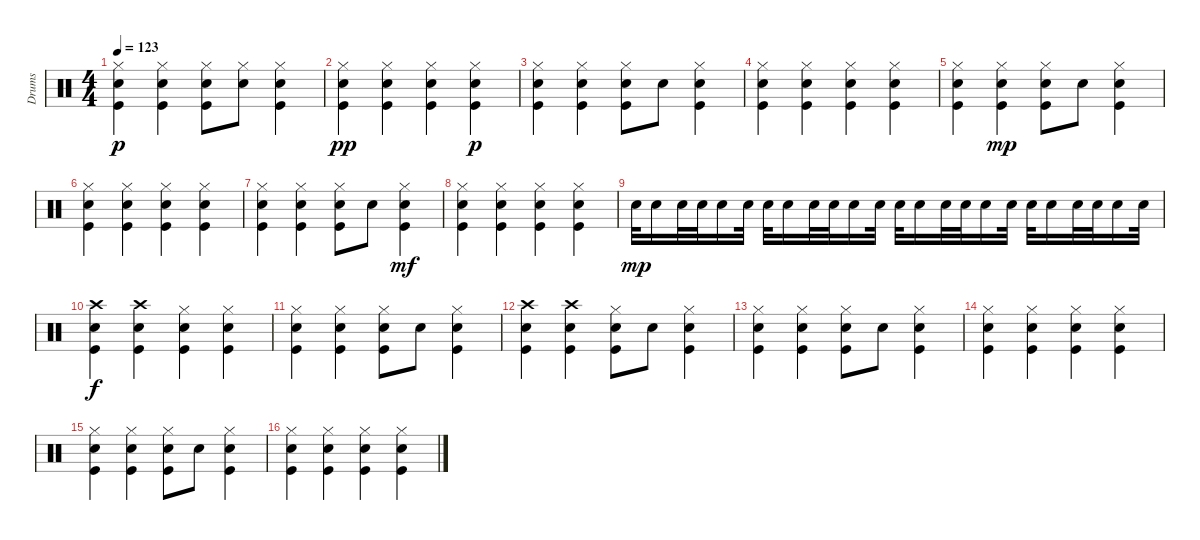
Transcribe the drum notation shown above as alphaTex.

\track ("Drums" "Drums") {instrument percussion}
\staff {score}
\articulation defaults
\ts (4 4)
\tempo 123
\clef neutral
\ks c
("Electric Snare (hit)" "Kick (hit)" "Hi-Hat (closed)").4{dy p} ("Kick (hit)" "Electric Snare (hit)" "Hi-Hat (closed)").4 ("Kick (hit)" "Electric Snare (hit)" "Hi-Hat (closed)").8 ("Hi-Hat (closed)" "Electric Snare (hit)").8 ("Kick (hit)" "Electric Snare (hit)" "Hi-Hat (closed)").4 |
("Hi-Hat (closed)" "Kick (hit)" "Electric Snare (hit)").4{dy pp} ("Hi-Hat (closed)" "Kick (hit)" "Electric Snare (hit)").4 ("Hi-Hat (closed)" "Kick (hit)" "Electric Snare (hit)").4 ("Hi-Hat (closed)" "Kick (hit)" "Electric Snare (hit)").4{dy p} |
("Electric Snare (hit)" "Kick (hit)" "Hi-Hat (closed)").4 ("Kick (hit)" "Electric Snare (hit)" "Hi-Hat (closed)").4 ("Kick (hit)" "Electric Snare (hit)" "Hi-Hat (closed)").8 "Electric Snare (hit)".8 ("Kick (hit)" "Electric Snare (hit)" "Hi-Hat (closed)").4 |
("Hi-Hat (closed)" "Kick (hit)" "Electric Snare (hit)").4 ("Hi-Hat (closed)" "Kick (hit)" "Electric Snare (hit)").4 ("Hi-Hat (closed)" "Kick (hit)" "Electric Snare (hit)").4 ("Hi-Hat (closed)" "Kick (hit)" "Electric Snare (hit)").4 |
("Electric Snare (hit)" "Kick (hit)" "Hi-Hat (closed)").4 ("Kick (hit)" "Electric Snare (hit)" "Hi-Hat (closed)").4{dy mp} ("Kick (hit)" "Electric Snare (hit)" "Hi-Hat (closed)").8 "Electric Snare (hit)".8 ("Kick (hit)" "Electric Snare (hit)" "Hi-Hat (closed)").4 |
("Hi-Hat (closed)" "Kick (hit)" "Electric Snare (hit)").4 ("Hi-Hat (closed)" "Kick (hit)" "Electric Snare (hit)").4 ("Hi-Hat (closed)" "Kick (hit)" "Electric Snare (hit)").4 ("Hi-Hat (closed)" "Kick (hit)" "Electric Snare (hit)").4 |
("Electric Snare (hit)" "Kick (hit)" "Hi-Hat (closed)").4 ("Kick (hit)" "Electric Snare (hit)" "Hi-Hat (closed)").4 ("Kick (hit)" "Electric Snare (hit)" "Hi-Hat (closed)").8 "Electric Snare (hit)".8 ("Kick (hit)" "Electric Snare (hit)" "Hi-Hat (closed)").4{dy mf} |
("Hi-Hat (closed)" "Kick (hit)" "Electric Snare (hit)").4 ("Hi-Hat (closed)" "Kick (hit)" "Electric Snare (hit)").4 ("Hi-Hat (closed)" "Kick (hit)" "Electric Snare (hit)").4 ("Electric Snare (hit)" "Hi-Hat (closed)" "Kick (hit)").4 |
"Electric Snare (hit)".32{dy mp} "Electric Snare (hit)".16 "Electric Snare (hit)".32 "Electric Snare (hit)".32 "Electric Snare (hit)".16 "Electric Snare (hit)".32 "Electric Snare (hit)".32 "Electric Snare (hit)".16 "Electric Snare (hit)".32 "Electric Snare (hit)".32 "Electric Snare (hit)".16 "Electric Snare (hit)".32 "Electric Snare (hit)".32 "Electric Snare (hit)".16 "Electric Snare (hit)".32 "Electric Snare (hit)".32 "Electric Snare (hit)".16 "Electric Snare (hit)".32 "Electric Snare (hit)".32 "Electric Snare (hit)".16 "Electric Snare (hit)".32 "Electric Snare (hit)".32 "Electric Snare (hit)".16 "Electric Snare (hit)".32 |
("Crash high (hit)" "Kick (hit)" "Electric Snare (hit)").4{dy f} ("Crash high (hit)" "Kick (hit)" "Electric Snare (hit)").4 ("Kick (hit)" "Electric Snare (hit)" "Hi-Hat (closed)").4 ("Kick (hit)" "Electric Snare (hit)" "Hi-Hat (closed)").4 |
("Electric Snare (hit)" "Kick (hit)" "Hi-Hat (closed)").4 ("Kick (hit)" "Electric Snare (hit)" "Hi-Hat (closed)").4 ("Kick (hit)" "Electric Snare (hit)" "Hi-Hat (closed)").8 "Electric Snare (hit)".8 ("Kick (hit)" "Electric Snare (hit)" "Hi-Hat (closed)").4 |
("Crash high (hit)" "Electric Snare (hit)" "Kick (hit)").4 ("Crash high (hit)" "Kick (hit)" "Electric Snare (hit)").4 ("Kick (hit)" "Electric Snare (hit)" "Hi-Hat (closed)").8 "Electric Snare (hit)".8 ("Kick (hit)" "Electric Snare (hit)" "Hi-Hat (closed)").4 |
("Electric Snare (hit)" "Kick (hit)" "Hi-Hat (closed)").4 ("Kick (hit)" "Electric Snare (hit)" "Hi-Hat (closed)").4 ("Kick (hit)" "Electric Snare (hit)" "Hi-Hat (closed)").8 "Electric Snare (hit)".8 ("Kick (hit)" "Electric Snare (hit)" "Hi-Hat (closed)").4 |
("Kick (hit)" "Electric Snare (hit)" "Hi-Hat (closed)").4 ("Kick (hit)" "Electric Snare (hit)" "Hi-Hat (closed)").4 ("Kick (hit)" "Electric Snare (hit)" "Hi-Hat (closed)").4 ("Kick (hit)" "Electric Snare (hit)" "Hi-Hat (closed)").4 |
("Electric Snare (hit)" "Kick (hit)" "Hi-Hat (closed)").4 ("Kick (hit)" "Electric Snare (hit)" "Hi-Hat (closed)").4 ("Kick (hit)" "Electric Snare (hit)" "Hi-Hat (closed)").8 "Electric Snare (hit)".8 ("Kick (hit)" "Electric Snare (hit)" "Hi-Hat (closed)").4 |
("Kick (hit)" "Electric Snare (hit)" "Hi-Hat (closed)").4 ("Kick (hit)" "Electric Snare (hit)" "Hi-Hat (closed)").4 ("Kick (hit)" "Electric Snare (hit)" "Hi-Hat (closed)").4 ("Kick (hit)" "Electric Snare (hit)" "Hi-Hat (closed)").4
